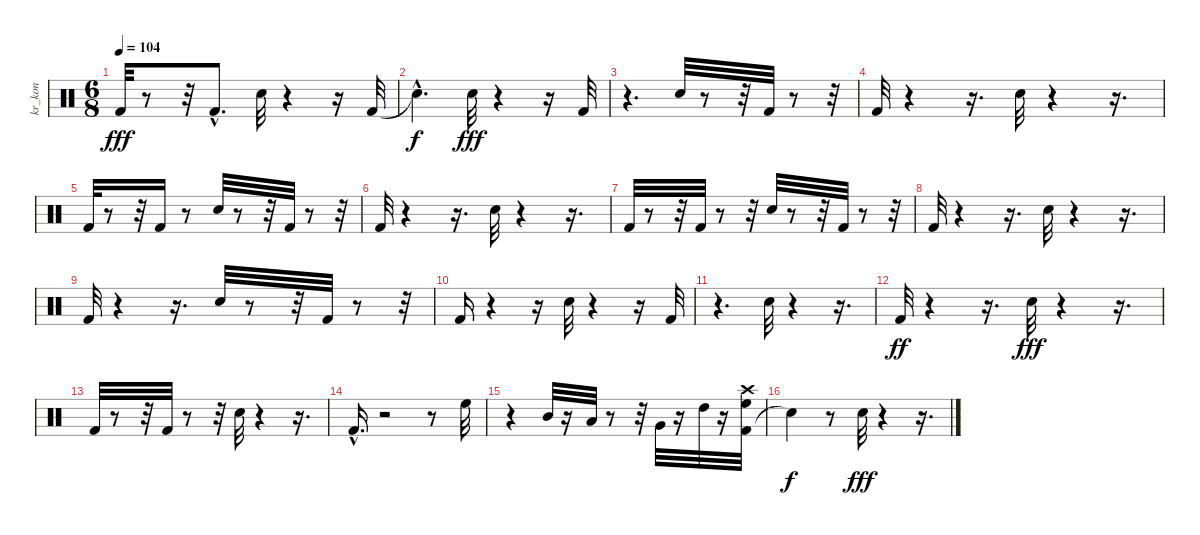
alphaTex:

\track ("kr_kon" "kr_kon") {instrument percussion}
\staff {score}
\articulation defaults
\ts (6 8)
\tempo 104
\clef neutral
\ks c "Kick (hit) 2".32{dy fff}
r.8 r.32 "Kick (hit) 2"{hac}.8{d} "Electric Snare (hit)".32 r.4 r.16 "Kick (hit) 2".32 |
"Snare (hit)"{hac t}.4{d dy f} "Electric Snare (hit)".32{dy fff} r.4 r.16 "Kick (hit) 2".32 |
r.4{d} "Electric Snare (hit)".32 r.8 r.32 "Kick (hit) 2".32 r.8 r.32 |
"Kick (hit) 2".32 r.4 r.16{d} "Electric Snare (hit)".32 r.4 r.16{d} |
"Kick (hit) 2".32 r.8 r.32 "Kick (hit) 2".16 r.8 "Electric Snare (hit)".32 r.8 r.32 "Kick (hit) 2".32 r.8 r.32 |
"Kick (hit) 2".32 r.4 r.16{d} "Electric Snare (hit)".32 r.4 r.16{d} |
"Kick (hit) 2".32 r.8 r.32 "Kick (hit) 2".32 r.8 r.32 "Electric Snare (hit)".32 r.8 r.32 "Kick (hit) 2".32 r.8 r.32 |
"Kick (hit) 2".32 r.4 r.16{d} "Electric Snare (hit)".32 r.4 r.16{d} |
"Kick (hit) 2".32 r.4 r.16{d} "Electric Snare (hit)".32 r.8 r.32 "Kick (hit) 2".32 r.8 r.32 |
"Kick (hit) 2".16 r.4 r.16 "Electric Snare (hit)".32 r.4 r.16 "Kick (hit) 2".32 |
r.4{d} "Electric Snare (hit)".32 r.4 r.16{d} |
"Kick (hit) 2".32{dy ff} r.4 r.16{d} "Electric Snare (hit)".32{dy fff} r.4 r.16{d} |
"Kick (hit) 2".32 r.8 r.32 "Kick (hit) 2".32 r.8 r.32 "Electric Snare (hit)".32 r.4 r.16{d} |
"Kick (hit) 2"{hac}.16{d} r.2 r.8 "High Floor Tom (hit)".32 |
r.4 "Mid Tom (hit)".32 r.16 "Low Tom (hit)".32 r.8 r.32 "Very Low Tom (hit)".32 r.16 "High Tom (hit)".32 r.16 ("Kick (hit) 2" "Crash high (hit)" "High Floor Tom (hit)").32 |
"Snare (hit)"{t}.4{dy f} r.8 "Electric Snare (hit)".32{dy fff} r.4 r.16{d}
